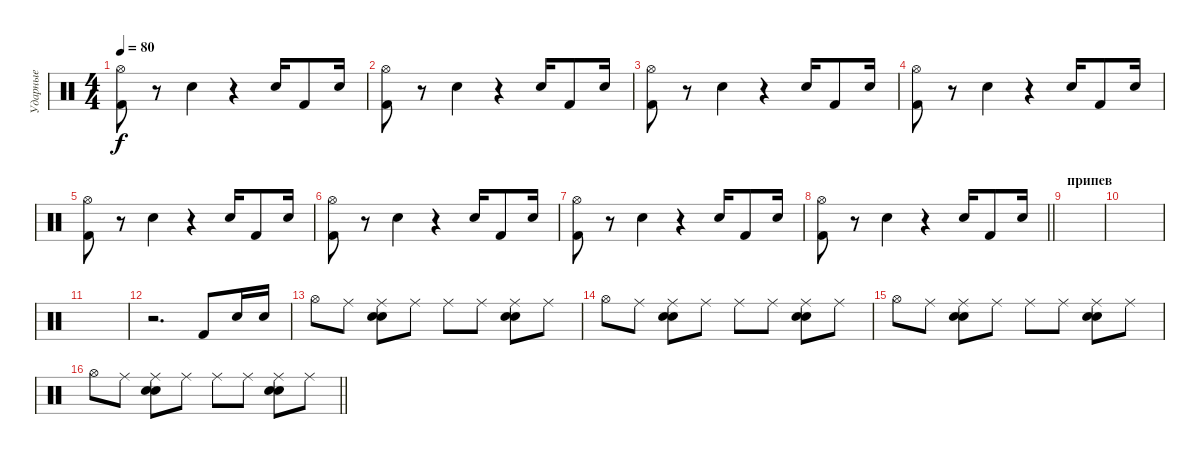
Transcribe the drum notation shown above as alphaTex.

\track ("Ударные" "Ударные") {instrument percussion}
\staff {score}
\articulation defaults
\ts (4 4)
\tempo 80
\clef neutral
\ks c
("Hi-Hat (open)" "Kick (hit) 2").8{dy f} r.8 "Hand Clap (hit)".4 r.4 "Hand Clap (hit)".16 "Kick (hit) 2".8 "Hand Clap (hit)".16 |
("Hi-Hat (open)" "Kick (hit) 2").8 r.8 "Hand Clap (hit)".4 r.4 "Hand Clap (hit)".16 "Kick (hit) 2".8 "Hand Clap (hit)".16 |
("Hi-Hat (open)" "Kick (hit) 2").8 r.8 "Hand Clap (hit)".4 r.4 "Hand Clap (hit)".16 "Kick (hit) 2".8 "Hand Clap (hit)".16 |
("Hi-Hat (open)" "Kick (hit) 2").8 r.8 "Hand Clap (hit)".4 r.4 "Hand Clap (hit)".16 "Kick (hit) 2".8 "Hand Clap (hit)".16 |
("Hi-Hat (open)" "Kick (hit) 2").8 r.8 "Hand Clap (hit)".4 r.4 "Hand Clap (hit)".16 "Kick (hit) 2".8 "Hand Clap (hit)".16 |
("Hi-Hat (open)" "Kick (hit) 2").8 r.8 "Hand Clap (hit)".4 r.4 "Hand Clap (hit)".16 "Kick (hit) 2".8 "Hand Clap (hit)".16 |
("Hi-Hat (open)" "Kick (hit) 2").8 r.8 "Hand Clap (hit)".4 r.4 "Hand Clap (hit)".16 "Kick (hit) 2".8 "Hand Clap (hit)".16 |
\barLineRight lightlight
("Hi-Hat (open)" "Kick (hit) 2").8 r.8 "Hand Clap (hit)".4 r.4 "Hand Clap (hit)".16 "Kick (hit) 2".8 "Hand Clap (hit)".16 |
\section ("" "припев")
|
|
|
r.2{d} "Kick (hit) 2".8 "Snare (hit) 2".16 "Snare (hit) 2".16 |
"Hi-Hat (open)".8 "Ride (middle)".8 ("Ride (middle)" "Snare (hit) 2" "Hand Clap (hit)").8 "Ride (middle)".8 "Ride (middle)".8 "Ride (middle)".8 ("Ride (middle)" "Snare (hit) 2" "Hand Clap (hit)").8 "Ride (middle)".8 |
"Hi-Hat (open)".8 "Ride (middle)".8 ("Ride (middle)" "Snare (hit) 2" "Hand Clap (hit)").8 "Ride (middle)".8 "Ride (middle)".8 "Ride (middle)".8 ("Ride (middle)" "Snare (hit) 2" "Hand Clap (hit)").8 "Ride (middle)".8 |
"Hi-Hat (open)".8 "Ride (middle)".8 ("Ride (middle)" "Snare (hit) 2" "Hand Clap (hit)").8 "Ride (middle)".8 "Ride (middle)".8 "Ride (middle)".8 ("Ride (middle)" "Snare (hit) 2" "Hand Clap (hit)").8 "Ride (middle)".8 |
\barLineRight lightlight "Hi-Hat (open)".8 "Ride (middle)".8
("Ride (middle)" "Snare (hit) 2" "Hand Clap (hit)").8 "Ride (middle)".8 "Ride (middle)".8 "Ride (middle)".8 ("Ride (middle)" "Snare (hit) 2" "Hand Clap (hit)").8 "Ride (middle)".8
